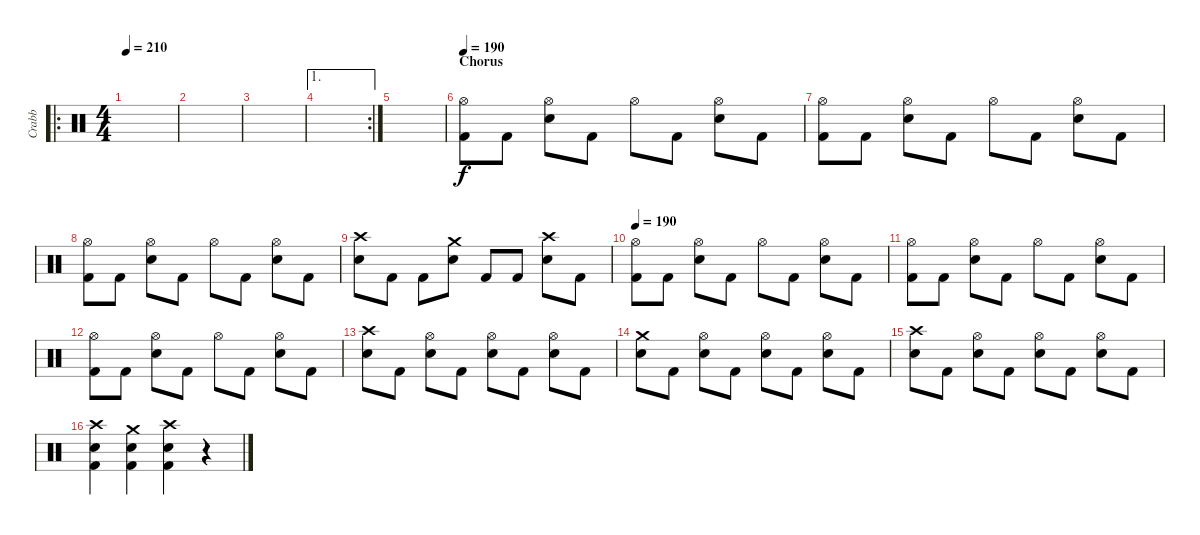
\track ("Crabb" "Crabb") {instrument percussion}
\staff {score}
\articulation defaults
\ro
\ts (4 4)
\tempo 210
\tempo 170
\tempo 210
\clef neutral
\ks c
|
|
|
\ae 1
\rc 2
|
|
\section ("" "Chorus")
\tempo 210
\tempo 190
("Hi-Hat (open)" "Kick (hit) 2").8 "Kick (hit) 2".8 ("Hi-Hat (open)" "Electric Snare (hit)").8 "Kick (hit) 2".8 "Hi-Hat (open)".8 "Kick (hit) 2".8 ("Hi-Hat (open)" "Electric Snare (hit)").8 "Kick (hit) 2".8 |
("Hi-Hat (open)" "Kick (hit) 2").8 "Kick (hit) 2".8 ("Hi-Hat (open)" "Electric Snare (hit)").8 "Kick (hit) 2".8 "Hi-Hat (open)".8 "Kick (hit) 2".8 ("Hi-Hat (open)" "Electric Snare (hit)").8 "Kick (hit) 2".8 |
("Hi-Hat (open)" "Kick (hit) 2").8 "Kick (hit) 2".8 ("Hi-Hat (open)" "Electric Snare (hit)").8 "Kick (hit) 2".8 "Hi-Hat (open)".8 "Kick (hit) 2".8 ("Hi-Hat (open)" "Electric Snare (hit)").8 "Kick (hit) 2".8 |
("Crash high (hit)" "Electric Snare (hit)").8 "Kick (hit) 2".8 "Kick (hit) 2".8 ("Crash medium (hit)" "Electric Snare (hit)").8 "Kick (hit) 2".8 "Kick (hit) 2".8 ("Crash high (hit)" "Electric Snare (hit)").8 "Kick (hit) 2".8 |
\tempo 190
("Hi-Hat (open)" "Kick (hit) 2").8 "Kick (hit) 2".8 ("Hi-Hat (open)" "Electric Snare (hit)").8 "Kick (hit) 2".8 "Hi-Hat (open)".8 "Kick (hit) 2".8 ("Hi-Hat (open)" "Electric Snare (hit)").8 "Kick (hit) 2".8 |
("Hi-Hat (open)" "Kick (hit) 2").8 "Kick (hit) 2".8 ("Hi-Hat (open)" "Electric Snare (hit)").8 "Kick (hit) 2".8 "Hi-Hat (open)".8 "Kick (hit) 2".8 ("Hi-Hat (open)" "Electric Snare (hit)").8 "Kick (hit) 2".8 |
("Hi-Hat (open)" "Kick (hit) 2").8 "Kick (hit) 2".8 ("Hi-Hat (open)" "Electric Snare (hit)").8 "Kick (hit) 2".8 "Hi-Hat (open)".8 "Kick (hit) 2".8 ("Hi-Hat (open)" "Electric Snare (hit)").8 "Kick (hit) 2".8 |
("Crash high (hit)" "Electric Snare (hit)").8 "Kick (hit) 2".8 ("Hi-Hat (open)" "Electric Snare (hit)").8 "Kick (hit) 2".8 ("Hi-Hat (open)" "Electric Snare (hit)").8 "Kick (hit) 2".8 ("Hi-Hat (open)" "Electric Snare (hit)").8 "Kick (hit) 2".8 |
("Crash medium (hit)" "Electric Snare (hit)").8 "Kick (hit) 2".8 ("Hi-Hat (open)" "Electric Snare (hit)").8 "Kick (hit) 2".8 ("Hi-Hat (open)" "Electric Snare (hit)").8 "Kick (hit) 2".8 ("Hi-Hat (open)" "Electric Snare (hit)").8 "Kick (hit) 2".8 |
("Crash high (hit)" "Electric Snare (hit)").8 "Kick (hit) 2".8 ("Hi-Hat (open)" "Electric Snare (hit)").8 "Kick (hit) 2".8 ("Hi-Hat (open)" "Electric Snare (hit)").8 "Kick (hit) 2".8 ("Hi-Hat (open)" "Electric Snare (hit)").8 "Kick (hit) 2".8 |
("Crash high (hit)" "Electric Snare (hit)" "Kick (hit) 2").4 ("Crash medium (hit)" "Electric Snare (hit)" "Kick (hit) 2").4 ("Crash high (hit)" "Electric Snare (hit)" "Kick (hit) 2").4 r.4
